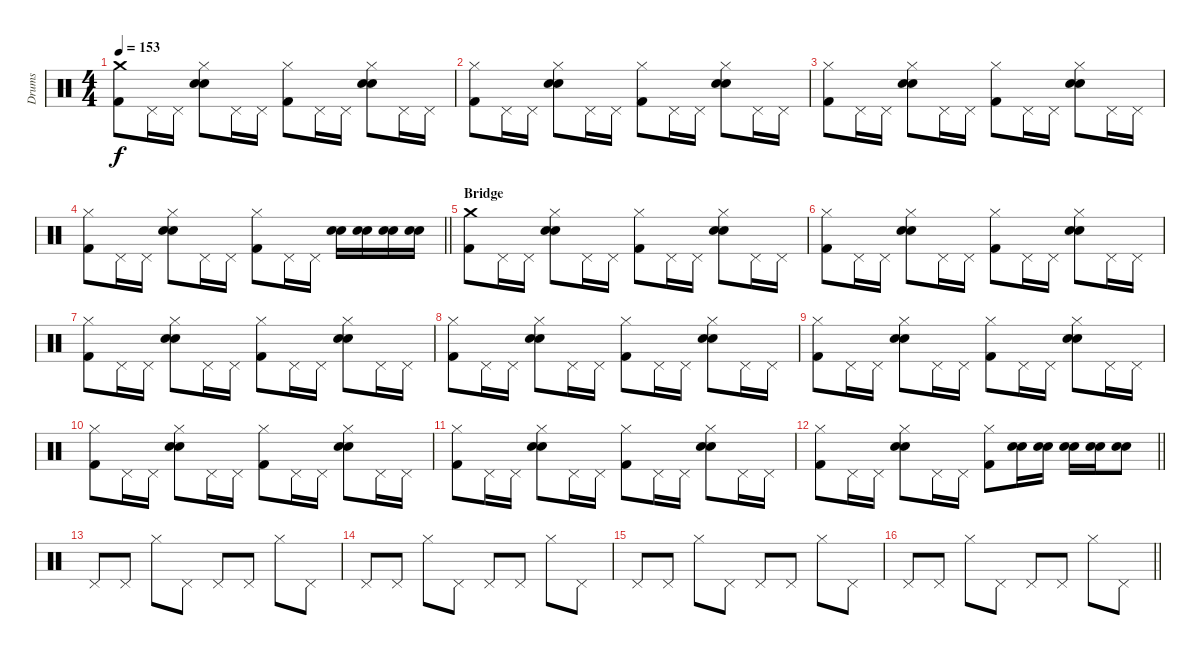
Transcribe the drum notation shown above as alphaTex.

\track ("Drums" "Drums") {instrument percussion}
\staff {score}
\articulation defaults
\ts (4 4)
\tempo 153
\clef neutral
\ks c
("Crash medium (hit)" "Kick (hit) 2").8{dy f} "Pedal Hi-Hat (hit)".16 "Pedal Hi-Hat (hit)".16 ("Hi-Hat (closed)" "Electric Snare (hit)" "Snare (hit) 2").8 "Pedal Hi-Hat (hit)".16 "Pedal Hi-Hat (hit)".16 ("Hi-Hat (closed)" "Kick (hit) 2").8 "Pedal Hi-Hat (hit)".16 "Pedal Hi-Hat (hit)".16 ("Hi-Hat (closed)" "Electric Snare (hit)" "Snare (hit) 2").8 "Pedal Hi-Hat (hit)".16 "Pedal Hi-Hat (hit)".16 |
("Hi-Hat (closed)" "Kick (hit) 2").8 "Pedal Hi-Hat (hit)".16 "Pedal Hi-Hat (hit)".16 ("Hi-Hat (closed)" "Electric Snare (hit)" "Snare (hit) 2").8 "Pedal Hi-Hat (hit)".16 "Pedal Hi-Hat (hit)".16 ("Hi-Hat (closed)" "Kick (hit) 2").8 "Pedal Hi-Hat (hit)".16 "Pedal Hi-Hat (hit)".16 ("Hi-Hat (closed)" "Electric Snare (hit)" "Snare (hit) 2").8 "Pedal Hi-Hat (hit)".16 "Pedal Hi-Hat (hit)".16 |
("Hi-Hat (closed)" "Kick (hit) 2").8 "Pedal Hi-Hat (hit)".16 "Pedal Hi-Hat (hit)".16 ("Hi-Hat (closed)" "Electric Snare (hit)" "Snare (hit) 2").8 "Pedal Hi-Hat (hit)".16 "Pedal Hi-Hat (hit)".16 ("Hi-Hat (closed)" "Kick (hit) 2").8 "Pedal Hi-Hat (hit)".16 "Pedal Hi-Hat (hit)".16 ("Hi-Hat (closed)" "Electric Snare (hit)" "Snare (hit) 2").8 "Pedal Hi-Hat (hit)".16 "Pedal Hi-Hat (hit)".16 |
\barLineRight lightlight
("Hi-Hat (closed)" "Kick (hit) 2").8 "Pedal Hi-Hat (hit)".16 "Pedal Hi-Hat (hit)".16 ("Hi-Hat (closed)" "Electric Snare (hit)" "Snare (hit) 2").8 "Pedal Hi-Hat (hit)".16 "Pedal Hi-Hat (hit)".16 ("Hi-Hat (closed)" "Kick (hit) 2").8 "Pedal Hi-Hat (hit)".16 "Pedal Hi-Hat (hit)".16 ("Electric Snare (hit)" "Snare (hit) 2").16 ("Electric Snare (hit)" "Snare (hit) 2").16 ("Electric Snare (hit)" "Snare (hit) 2").16 ("Electric Snare (hit)" "Snare (hit) 2").16 |
\section ("" "Bridge")
("Crash medium (hit)" "Kick (hit) 2").8 "Pedal Hi-Hat (hit)".16 "Pedal Hi-Hat (hit)".16 ("Hi-Hat (closed)" "Electric Snare (hit)" "Snare (hit) 2").8 "Pedal Hi-Hat (hit)".16 "Pedal Hi-Hat (hit)".16 ("Hi-Hat (closed)" "Kick (hit) 2").8 "Pedal Hi-Hat (hit)".16 "Pedal Hi-Hat (hit)".16 ("Hi-Hat (closed)" "Electric Snare (hit)" "Snare (hit) 2").8 "Pedal Hi-Hat (hit)".16 "Pedal Hi-Hat (hit)".16 |
("Hi-Hat (closed)" "Kick (hit) 2").8 "Pedal Hi-Hat (hit)".16 "Pedal Hi-Hat (hit)".16 ("Hi-Hat (closed)" "Electric Snare (hit)" "Snare (hit) 2").8 "Pedal Hi-Hat (hit)".16 "Pedal Hi-Hat (hit)".16 ("Hi-Hat (closed)" "Kick (hit) 2").8 "Pedal Hi-Hat (hit)".16 "Pedal Hi-Hat (hit)".16 ("Hi-Hat (closed)" "Electric Snare (hit)" "Snare (hit) 2").8 "Pedal Hi-Hat (hit)".16 "Pedal Hi-Hat (hit)".16 |
("Hi-Hat (closed)" "Kick (hit) 2").8 "Pedal Hi-Hat (hit)".16 "Pedal Hi-Hat (hit)".16 ("Hi-Hat (closed)" "Electric Snare (hit)" "Snare (hit) 2").8 "Pedal Hi-Hat (hit)".16 "Pedal Hi-Hat (hit)".16 ("Hi-Hat (closed)" "Kick (hit) 2").8 "Pedal Hi-Hat (hit)".16 "Pedal Hi-Hat (hit)".16 ("Hi-Hat (closed)" "Electric Snare (hit)" "Snare (hit) 2").8 "Pedal Hi-Hat (hit)".16 "Pedal Hi-Hat (hit)".16 |
("Hi-Hat (closed)" "Kick (hit) 2").8 "Pedal Hi-Hat (hit)".16 "Pedal Hi-Hat (hit)".16 ("Hi-Hat (closed)" "Electric Snare (hit)" "Snare (hit) 2").8 "Pedal Hi-Hat (hit)".16 "Pedal Hi-Hat (hit)".16 ("Hi-Hat (closed)" "Kick (hit) 2").8 "Pedal Hi-Hat (hit)".16 "Pedal Hi-Hat (hit)".16 ("Hi-Hat (closed)" "Electric Snare (hit)" "Snare (hit) 2").8 "Pedal Hi-Hat (hit)".16 "Pedal Hi-Hat (hit)".16 |
("Hi-Hat (closed)" "Kick (hit) 2").8 "Pedal Hi-Hat (hit)".16 "Pedal Hi-Hat (hit)".16 ("Hi-Hat (closed)" "Electric Snare (hit)" "Snare (hit) 2").8 "Pedal Hi-Hat (hit)".16 "Pedal Hi-Hat (hit)".16 ("Hi-Hat (closed)" "Kick (hit) 2").8 "Pedal Hi-Hat (hit)".16 "Pedal Hi-Hat (hit)".16 ("Hi-Hat (closed)" "Electric Snare (hit)" "Snare (hit) 2").8 "Pedal Hi-Hat (hit)".16 "Pedal Hi-Hat (hit)".16 |
("Hi-Hat (closed)" "Kick (hit) 2").8 "Pedal Hi-Hat (hit)".16 "Pedal Hi-Hat (hit)".16 ("Hi-Hat (closed)" "Electric Snare (hit)" "Snare (hit) 2").8 "Pedal Hi-Hat (hit)".16 "Pedal Hi-Hat (hit)".16 ("Hi-Hat (closed)" "Kick (hit) 2").8 "Pedal Hi-Hat (hit)".16 "Pedal Hi-Hat (hit)".16 ("Hi-Hat (closed)" "Electric Snare (hit)" "Snare (hit) 2").8 "Pedal Hi-Hat (hit)".16 "Pedal Hi-Hat (hit)".16 |
("Hi-Hat (closed)" "Kick (hit) 2").8 "Pedal Hi-Hat (hit)".16 "Pedal Hi-Hat (hit)".16 ("Hi-Hat (closed)" "Electric Snare (hit)" "Snare (hit) 2").8 "Pedal Hi-Hat (hit)".16 "Pedal Hi-Hat (hit)".16 ("Hi-Hat (closed)" "Kick (hit) 2").8 "Pedal Hi-Hat (hit)".16 "Pedal Hi-Hat (hit)".16 ("Hi-Hat (closed)" "Electric Snare (hit)" "Snare (hit) 2").8 "Pedal Hi-Hat (hit)".16 "Pedal Hi-Hat (hit)".16 |
\barLineRight lightlight
("Hi-Hat (closed)" "Kick (hit) 2").8 "Pedal Hi-Hat (hit)".16 "Pedal Hi-Hat (hit)".16 ("Hi-Hat (closed)" "Electric Snare (hit)" "Snare (hit) 2").8 "Pedal Hi-Hat (hit)".16 "Pedal Hi-Hat (hit)".16 ("Hi-Hat (closed)" "Kick (hit) 2").8 ("Electric Snare (hit)" "Snare (hit) 2").16 ("Electric Snare (hit)" "Snare (hit) 2").16 ("Electric Snare (hit)" "Snare (hit) 2").16 ("Electric Snare (hit)" "Snare (hit) 2").16 ("Electric Snare (hit)" "Snare (hit) 2").8 |
\section ("" "")
"Pedal Hi-Hat (hit)".8 "Pedal Hi-Hat (hit)".8 "Hi-Hat (closed)".8 "Pedal Hi-Hat (hit)".8 "Pedal Hi-Hat (hit)".8 "Pedal Hi-Hat (hit)".8 "Hi-Hat (closed)".8 "Pedal Hi-Hat (hit)".8 |
"Pedal Hi-Hat (hit)".8 "Pedal Hi-Hat (hit)".8 "Hi-Hat (closed)".8 "Pedal Hi-Hat (hit)".8 "Pedal Hi-Hat (hit)".8 "Pedal Hi-Hat (hit)".8 "Hi-Hat (closed)".8 "Pedal Hi-Hat (hit)".8 |
"Pedal Hi-Hat (hit)".8 "Pedal Hi-Hat (hit)".8 "Hi-Hat (closed)".8 "Pedal Hi-Hat (hit)".8 "Pedal Hi-Hat (hit)".8 "Pedal Hi-Hat (hit)".8 "Hi-Hat (closed)".8 "Pedal Hi-Hat (hit)".8 |
\barLineRight lightlight "Pedal Hi-Hat (hit)".8 "Pedal Hi-Hat (hit)".8 "Hi-Hat (closed)".8 "Pedal Hi-Hat (hit)".8 "Pedal Hi-Hat (hit)".8 "Pedal Hi-Hat (hit)".8 "Hi-Hat (closed)".8 "Pedal Hi-Hat (hit)".8
